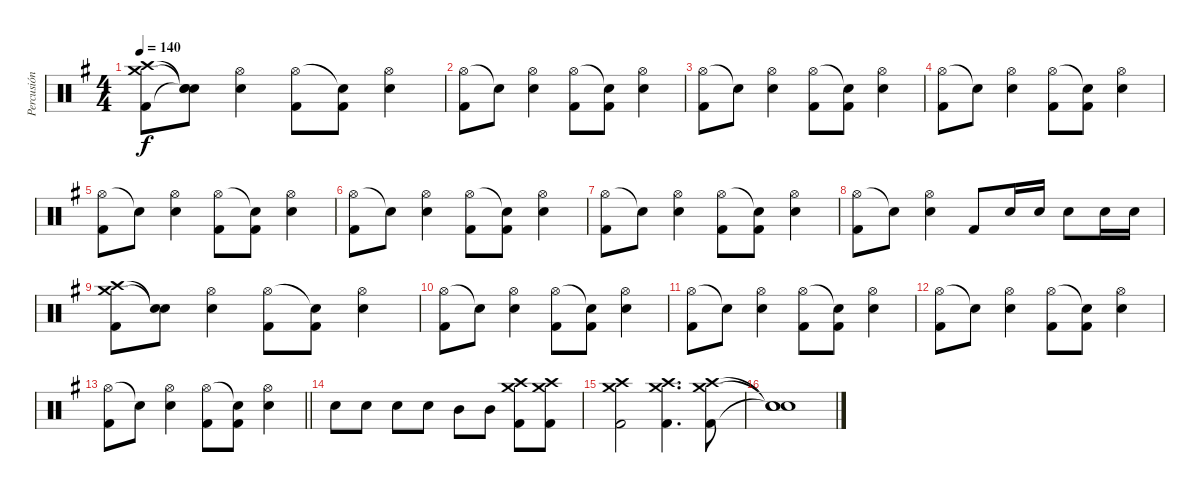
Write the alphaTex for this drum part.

\track ("Percusión" "Percusión") {instrument percussion}
\staff {score}
\articulation defaults
\ts (4 4)
\tempo 140
\clef neutral
\ks g
("Crash medium (hit)" "Crash high (hit)" "Kick (hit) 2").8{dy f} ("Snare (hit)"{t} "Snare (hit)"{t} "Snare (hit)"{t}).8 ("Hi-Hat (open)" "Electric Snare (hit)").4 ("Hi-Hat (open)" "Kick (hit) 2").8 ("Snare (hit)"{t} "Kick (hit) 2").8 ("Hi-Hat (open)" "Electric Snare (hit)").4 |
("Hi-Hat (open)" "Kick (hit) 2").8 "Snare (hit)"{t}.8 ("Hi-Hat (open)" "Electric Snare (hit)").4 ("Hi-Hat (open)" "Kick (hit) 2").8 ("Snare (hit)"{t} "Kick (hit) 2").8 ("Hi-Hat (open)" "Electric Snare (hit)").4 |
("Hi-Hat (open)" "Kick (hit) 2").8 "Snare (hit)"{t}.8 ("Hi-Hat (open)" "Electric Snare (hit)").4 ("Hi-Hat (open)" "Kick (hit) 2").8 ("Snare (hit)"{t} "Kick (hit) 2").8 ("Hi-Hat (open)" "Electric Snare (hit)").4 |
("Hi-Hat (open)" "Kick (hit) 2").8 "Snare (hit)"{t}.8 ("Hi-Hat (open)" "Electric Snare (hit)").4 ("Hi-Hat (open)" "Kick (hit) 2").8 ("Snare (hit)"{t} "Kick (hit) 2").8 ("Hi-Hat (open)" "Electric Snare (hit)").4 |
("Hi-Hat (open)" "Kick (hit) 2").8 "Snare (hit)"{t}.8 ("Hi-Hat (open)" "Electric Snare (hit)").4 ("Hi-Hat (open)" "Kick (hit) 2").8 ("Snare (hit)"{t} "Kick (hit) 2").8 ("Hi-Hat (open)" "Electric Snare (hit)").4 |
("Hi-Hat (open)" "Kick (hit) 2").8 "Snare (hit)"{t}.8 ("Hi-Hat (open)" "Electric Snare (hit)").4 ("Hi-Hat (open)" "Kick (hit) 2").8 ("Snare (hit)"{t} "Kick (hit) 2").8 ("Hi-Hat (open)" "Electric Snare (hit)").4 |
("Hi-Hat (open)" "Kick (hit) 2").8 "Snare (hit)"{t}.8 ("Hi-Hat (open)" "Electric Snare (hit)").4 ("Hi-Hat (open)" "Kick (hit) 2").8 ("Snare (hit)"{t} "Kick (hit) 2").8 ("Hi-Hat (open)" "Electric Snare (hit)").4 |
("Hi-Hat (open)" "Kick (hit) 2").8 "Snare (hit)"{t}.8 ("Hi-Hat (open)" "Electric Snare (hit)").4 "Kick (hit) 2".8 "Electric Snare (hit)".16 "Electric Snare (hit)".16 "Electric Snare (hit)".8 "Electric Snare (hit)".16 "Electric Snare (hit)".16 |
("Crash medium (hit)" "Crash high (hit)" "Kick (hit) 2").8 ("Snare (hit)"{t} "Snare (hit)"{t}).8 ("Hi-Hat (open)" "Electric Snare (hit)").4 ("Hi-Hat (open)" "Kick (hit) 2").8 ("Snare (hit)"{t} "Kick (hit) 2").8 ("Hi-Hat (open)" "Electric Snare (hit)").4 |
("Hi-Hat (open)" "Kick (hit) 2").8 "Snare (hit)"{t}.8 ("Hi-Hat (open)" "Electric Snare (hit)").4 ("Hi-Hat (open)" "Kick (hit) 2").8 ("Snare (hit)"{t} "Kick (hit) 2").8 ("Hi-Hat (open)" "Electric Snare (hit)").4 |
("Hi-Hat (open)" "Kick (hit) 2").8 "Snare (hit)"{t}.8 ("Hi-Hat (open)" "Electric Snare (hit)").4 ("Hi-Hat (open)" "Kick (hit) 2").8 ("Snare (hit)"{t} "Kick (hit) 2").8 ("Hi-Hat (open)" "Electric Snare (hit)").4 |
("Hi-Hat (open)" "Kick (hit) 2").8 "Snare (hit)"{t}.8 ("Hi-Hat (open)" "Electric Snare (hit)").4 ("Hi-Hat (open)" "Kick (hit) 2").8 ("Snare (hit)"{t} "Kick (hit) 2").8 ("Hi-Hat (open)" "Electric Snare (hit)").4 |
\barLineRight lightlight
("Hi-Hat (open)" "Kick (hit) 2").8 "Snare (hit)"{t}.8 ("Hi-Hat (open)" "Electric Snare (hit)").4 ("Hi-Hat (open)" "Kick (hit) 2").8 ("Snare (hit)"{t} "Kick (hit) 2").8 ("Hi-Hat (open)" "Electric Snare (hit)").4 |
"Electric Snare (hit)".8 "Electric Snare (hit)".8 "Electric Snare (hit)".8 "Electric Snare (hit)".8 "Mid Tom (hit)".8 "Mid Tom (hit)".8 ("Crash high (hit)" "Crash medium (hit)" "Kick (hit) 2").8 ("Crash high (hit)" "Crash medium (hit)" "Kick (hit) 2").8 |
("Crash high (hit)" "Crash medium (hit)" "Kick (hit) 2").2 ("Crash high (hit)" "Crash medium (hit)" "Kick (hit) 2").4{d} ("Crash high (hit)" "Crash medium (hit)" "Kick (hit) 2").8 |
("Snare (hit)"{t} "Snare (hit)"{t} "Snare (hit)"{t}).1
